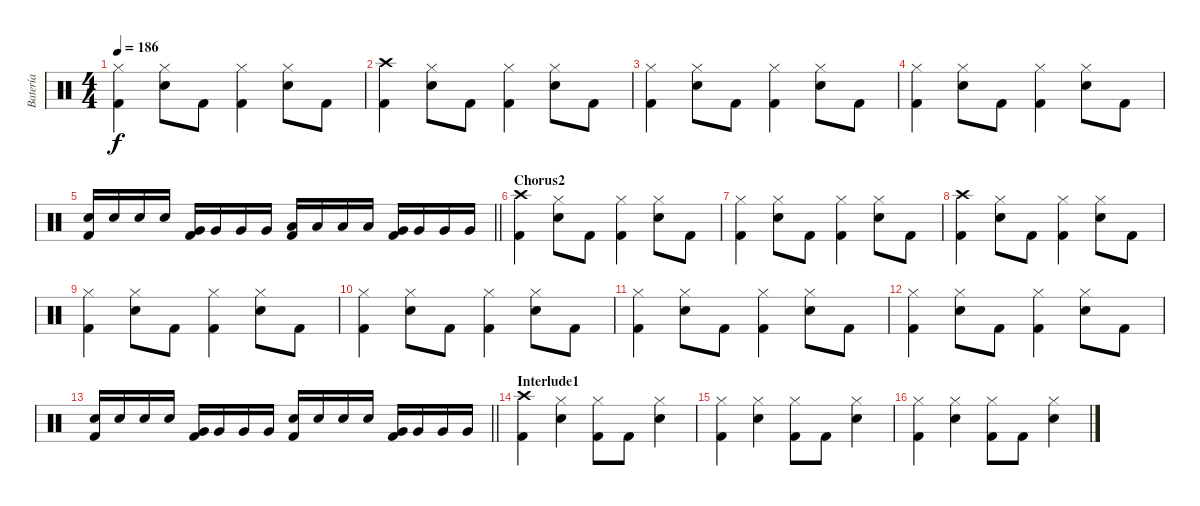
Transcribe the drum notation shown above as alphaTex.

\track ("Batería" "Batería") {instrument percussion}
\staff {score}
\articulation defaults
\ts (4 4)
\tempo 186
\clef neutral
\ks c
("Hi-Hat (closed)" "Kick (hit) 2").4{dy f} ("Hi-Hat (closed)" "Snare (hit) 2").8 "Kick (hit) 2".8 ("Hi-Hat (closed)" "Kick (hit) 2").4 ("Hi-Hat (closed)" "Snare (hit) 2").8 "Kick (hit) 2".8 |
("Crash high (hit)" "Kick (hit) 2").4 ("Hi-Hat (closed)" "Snare (hit) 2").8 "Kick (hit) 2".8 ("Hi-Hat (closed)" "Kick (hit) 2").4 ("Hi-Hat (closed)" "Snare (hit) 2").8 "Kick (hit) 2".8 |
("Hi-Hat (closed)" "Kick (hit) 2").4 ("Hi-Hat (closed)" "Snare (hit) 2").8 "Kick (hit) 2".8 ("Hi-Hat (closed)" "Kick (hit) 2").4 ("Hi-Hat (closed)" "Snare (hit) 2").8 "Kick (hit) 2".8 |
("Hi-Hat (closed)" "Kick (hit) 2").4 ("Hi-Hat (closed)" "Snare (hit) 2").8 "Kick (hit) 2".8 ("Hi-Hat (closed)" "Kick (hit) 2").4 ("Hi-Hat (closed)" "Snare (hit) 2").8 "Kick (hit) 2".8 |
\barLineRight lightlight
("Snare (hit) 2" "Kick (hit) 2").16 "Snare (hit) 2".16 "Snare (hit) 2".16 "Snare (hit) 2".16 ("Very Low Tom (hit)" "Kick (hit) 2").16 "Very Low Tom (hit)".16 "Very Low Tom (hit)".16 "Very Low Tom (hit)".16 ("Low Floor Tom (hit)" "Kick (hit) 2").16 "Low Floor Tom (hit)".16 "Low Floor Tom (hit)".16 "Low Floor Tom (hit)".16 ("Very Low Tom (hit)" "Kick (hit) 2").16 "Very Low Tom (hit)".16 "Very Low Tom (hit)".16 "Very Low Tom (hit)".16 |
\section ("" "Chorus2")
("Crash high (hit)" "Kick (hit) 2").4 ("Hi-Hat (closed)" "Snare (hit) 2").8 "Kick (hit) 2".8 ("Hi-Hat (closed)" "Kick (hit) 2").4 ("Hi-Hat (closed)" "Snare (hit) 2").8 "Kick (hit) 2".8 |
("Hi-Hat (closed)" "Kick (hit) 2").4 ("Hi-Hat (closed)" "Snare (hit) 2").8 "Kick (hit) 2".8 ("Hi-Hat (closed)" "Kick (hit) 2").4 ("Hi-Hat (closed)" "Snare (hit) 2").8 "Kick (hit) 2".8 |
("Crash high (hit)" "Kick (hit) 2").4 ("Hi-Hat (closed)" "Snare (hit) 2").8 "Kick (hit) 2".8 ("Hi-Hat (closed)" "Kick (hit) 2").4 ("Hi-Hat (closed)" "Snare (hit) 2").8 "Kick (hit) 2".8 |
("Hi-Hat (closed)" "Kick (hit) 2").4 ("Hi-Hat (closed)" "Snare (hit) 2").8 "Kick (hit) 2".8 ("Hi-Hat (closed)" "Kick (hit) 2").4 ("Hi-Hat (closed)" "Snare (hit) 2").8 "Kick (hit) 2".8 |
("Hi-Hat (closed)" "Kick (hit) 2").4 ("Hi-Hat (closed)" "Snare (hit) 2").8 "Kick (hit) 2".8 ("Hi-Hat (closed)" "Kick (hit) 2").4 ("Hi-Hat (closed)" "Snare (hit) 2").8 "Kick (hit) 2".8 |
("Hi-Hat (closed)" "Kick (hit) 2").4 ("Hi-Hat (closed)" "Snare (hit) 2").8 "Kick (hit) 2".8 ("Hi-Hat (closed)" "Kick (hit) 2").4 ("Hi-Hat (closed)" "Snare (hit) 2").8 "Kick (hit) 2".8 |
("Hi-Hat (closed)" "Kick (hit) 2").4 ("Hi-Hat (closed)" "Snare (hit) 2").8 "Kick (hit) 2".8 ("Hi-Hat (closed)" "Kick (hit) 2").4 ("Hi-Hat (closed)" "Snare (hit) 2").8 "Kick (hit) 2".8 |
\barLineRight lightlight
("Snare (hit) 2" "Kick (hit) 2").16 "Snare (hit) 2".16 "Snare (hit) 2".16 "Snare (hit) 2".16 ("Very Low Tom (hit)" "Kick (hit) 2").16 "Very Low Tom (hit)".16 "Very Low Tom (hit)".16 "Very Low Tom (hit)".16 ("Snare (hit) 2" "Kick (hit) 2").16 "Snare (hit) 2".16 "Snare (hit) 2".16 "Snare (hit) 2".16 ("Very Low Tom (hit)" "Kick (hit) 2").16 "Very Low Tom (hit)".16 "Very Low Tom (hit)".16 "Very Low Tom (hit)".16 |
\section ("" "Interlude1")
("Crash high (hit)" "Kick (hit) 2").4 ("Hi-Hat (closed)" "Snare (hit) 2").4 ("Hi-Hat (closed)" "Kick (hit) 2").8 "Kick (hit) 2".8 ("Hi-Hat (closed)" "Snare (hit) 2").4 |
("Hi-Hat (closed)" "Kick (hit) 2").4 ("Hi-Hat (closed)" "Snare (hit) 2").4 ("Hi-Hat (closed)" "Kick (hit) 2").8 "Kick (hit) 2".8 ("Hi-Hat (closed)" "Snare (hit) 2").4 |
("Hi-Hat (closed)" "Kick (hit) 2").4 ("Hi-Hat (closed)" "Snare (hit) 2").4 ("Hi-Hat (closed)" "Kick (hit) 2").8 "Kick (hit) 2".8 ("Hi-Hat (closed)" "Snare (hit) 2").4
